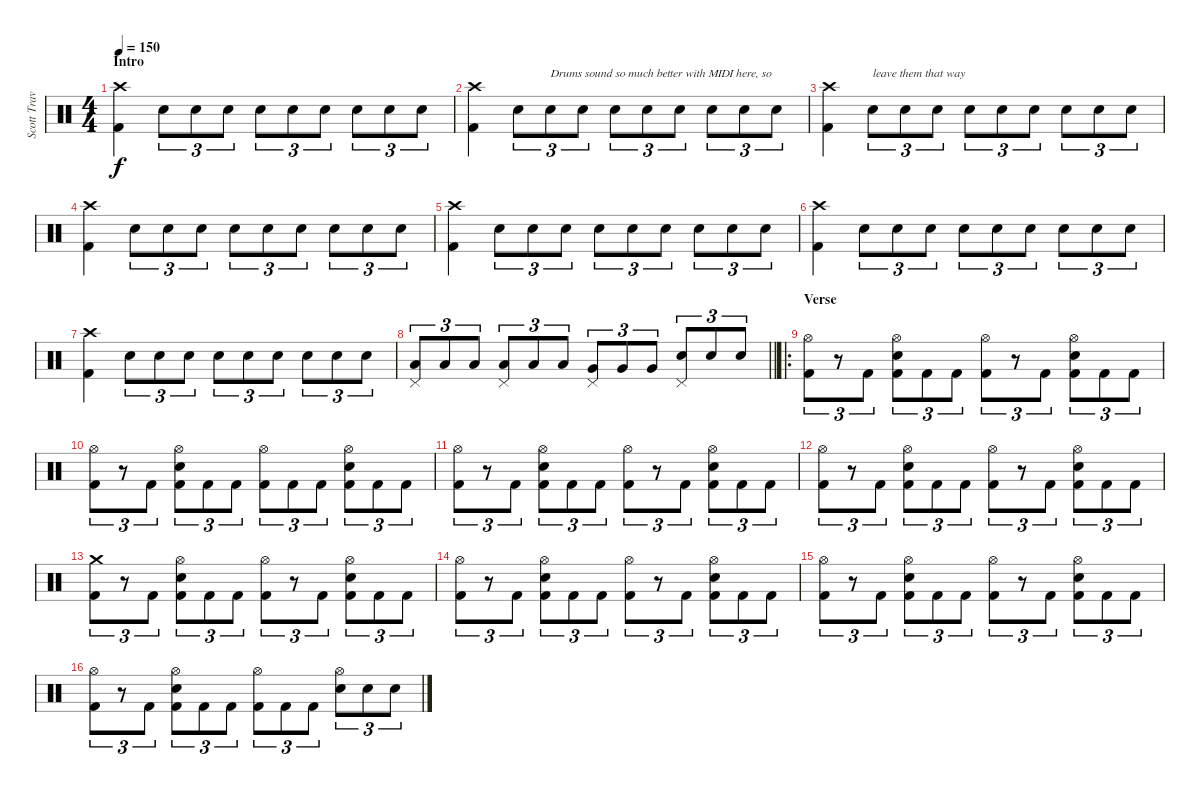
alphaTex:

\track ("Scott Travis" "Scott Trav") {instrument percussion}
\staff {score}
\articulation defaults
\ts (4 4)
\section ("" "Intro")
\tempo 150
\clef neutral
\ks c
("Crash high (hit)" "Kick (hit) 2").4{dy f} "Snare (hit) 2".8{tu (3 2)} "Snare (hit) 2".8{tu (3 2)} "Snare (hit) 2".8{tu (3 2)} "Snare (hit) 2".8{tu (3 2)} "Snare (hit) 2".8{tu (3 2)} "Snare (hit) 2".8{tu (3 2)} "Snare (hit) 2".8{tu (3 2)} "Snare (hit) 2".8{tu (3 2)} "Snare (hit) 2".8{tu (3 2)} |
("Crash high (hit)" "Kick (hit) 2").4 "Snare (hit) 2".8{tu (3 2)} "Snare (hit) 2".8{tu (3 2) txt "Drums sound so much better with MIDI here, so "} "Snare (hit) 2".8{tu (3 2)} "Snare (hit) 2".8{tu (3 2)} "Snare (hit) 2".8{tu (3 2)} "Snare (hit) 2".8{tu (3 2)} "Snare (hit) 2".8{tu (3 2)} "Snare (hit) 2".8{tu (3 2)} "Snare (hit) 2".8{tu (3 2)} |
("Crash high (hit)" "Kick (hit) 2").4 "Snare (hit) 2".8{tu (3 2) txt "leave them that way"} "Snare (hit) 2".8{tu (3 2)} "Snare (hit) 2".8{tu (3 2)} "Snare (hit) 2".8{tu (3 2)} "Snare (hit) 2".8{tu (3 2)} "Snare (hit) 2".8{tu (3 2)} "Snare (hit) 2".8{tu (3 2)} "Snare (hit) 2".8{tu (3 2)} "Snare (hit) 2".8{tu (3 2)} |
("Crash high (hit)" "Kick (hit) 2").4 "Snare (hit) 2".8{tu (3 2)} "Snare (hit) 2".8{tu (3 2)} "Snare (hit) 2".8{tu (3 2)} "Snare (hit) 2".8{tu (3 2)} "Snare (hit) 2".8{tu (3 2)} "Snare (hit) 2".8{tu (3 2)} "Snare (hit) 2".8{tu (3 2)} "Snare (hit) 2".8{tu (3 2)} "Snare (hit) 2".8{tu (3 2)} |
("Crash high (hit)" "Kick (hit) 2").4 "Snare (hit) 2".8{tu (3 2)} "Snare (hit) 2".8{tu (3 2)} "Snare (hit) 2".8{tu (3 2)} "Snare (hit) 2".8{tu (3 2)} "Snare (hit) 2".8{tu (3 2)} "Snare (hit) 2".8{tu (3 2)} "Snare (hit) 2".8{tu (3 2)} "Snare (hit) 2".8{tu (3 2)} "Snare (hit) 2".8{tu (3 2)} |
("Crash high (hit)" "Kick (hit) 2").4 "Snare (hit) 2".8{tu (3 2)} "Snare (hit) 2".8{tu (3 2)} "Snare (hit) 2".8{tu (3 2)} "Snare (hit) 2".8{tu (3 2)} "Snare (hit) 2".8{tu (3 2)} "Snare (hit) 2".8{tu (3 2)} "Snare (hit) 2".8{tu (3 2)} "Snare (hit) 2".8{tu (3 2)} "Snare (hit) 2".8{tu (3 2)} |
("Crash high (hit)" "Kick (hit) 2").4 "Snare (hit) 2".8{tu (3 2)} "Snare (hit) 2".8{tu (3 2)} "Snare (hit) 2".8{tu (3 2)} "Snare (hit) 2".8{tu (3 2)} "Snare (hit) 2".8{tu (3 2)} "Snare (hit) 2".8{tu (3 2)} "Snare (hit) 2".8{tu (3 2)} "Snare (hit) 2".8{tu (3 2)} "Snare (hit) 2".8{tu (3 2)} |
\barLineRight lightlight
("Pedal Hi-Hat (hit)" "Low Floor Tom (hit)").8{tu (3 2)} "Low Floor Tom (hit)".8{tu (3 2)} "Low Floor Tom (hit)".8{tu (3 2)} ("Pedal Hi-Hat (hit)" "Low Tom (hit)").8{tu (3 2)} "Low Tom (hit)".8{tu (3 2)} "Low Tom (hit)".8{tu (3 2)} ("Pedal Hi-Hat (hit)" "Very Low Tom (hit)").8{tu (3 2)} "Very Low Tom (hit)".8{tu (3 2)} "Very Low Tom (hit)".8{tu (3 2)} ("Pedal Hi-Hat (hit)" "Snare (hit) 2").8{tu (3 2)} "Snare (hit) 2".8{tu (3 2)} "Snare (hit) 2".8{tu (3 2)} |
\ro
\section ("" "Verse")
("Hi-Hat (open)" "Kick (hit) 2").8{tu (3 2)} r.8{tu (3 2)} "Kick (hit) 2".8{tu (3 2)} ("Hi-Hat (open)" "Snare (hit) 2" "Kick (hit) 2").8{tu (3 2)} "Kick (hit) 2".8{tu (3 2)} "Kick (hit) 2".8{tu (3 2)} ("Hi-Hat (open)" "Kick (hit) 2").8{tu (3 2)} r.8{tu (3 2)} "Kick (hit) 2".8{tu (3 2)} ("Hi-Hat (open)" "Snare (hit) 2" "Kick (hit) 2").8{tu (3 2)} "Kick (hit) 2".8{tu (3 2)} "Kick (hit) 2".8{tu (3 2)} |
("Hi-Hat (open)" "Kick (hit) 2").8{tu (3 2)} r.8{tu (3 2)} "Kick (hit) 2".8{tu (3 2)} ("Hi-Hat (open)" "Snare (hit) 2" "Kick (hit) 2").8{tu (3 2)} "Kick (hit) 2".8{tu (3 2)} "Kick (hit) 2".8{tu (3 2)} ("Hi-Hat (open)" "Kick (hit) 2").8{tu (3 2)} "Kick (hit) 2".8{tu (3 2)} "Kick (hit) 2".8{tu (3 2)} ("Hi-Hat (open)" "Snare (hit) 2" "Kick (hit) 2").8{tu (3 2)} "Kick (hit) 2".8{tu (3 2)} "Kick (hit) 2".8{tu (3 2)} |
("Hi-Hat (open)" "Kick (hit) 2").8{tu (3 2)} r.8{tu (3 2)} "Kick (hit) 2".8{tu (3 2)} ("Hi-Hat (open)" "Snare (hit) 2" "Kick (hit) 2").8{tu (3 2)} "Kick (hit) 2".8{tu (3 2)} "Kick (hit) 2".8{tu (3 2)} ("Hi-Hat (open)" "Kick (hit) 2").8{tu (3 2)} r.8{tu (3 2)} "Kick (hit) 2".8{tu (3 2)} ("Hi-Hat (open)" "Snare (hit) 2" "Kick (hit) 2").8{tu (3 2)} "Kick (hit) 2".8{tu (3 2)} "Kick (hit) 2".8{tu (3 2)} |
("Hi-Hat (open)" "Kick (hit) 2").8{tu (3 2)} r.8{tu (3 2)} "Kick (hit) 2".8{tu (3 2)} ("Hi-Hat (open)" "Snare (hit) 2" "Kick (hit) 2").8{tu (3 2)} "Kick (hit) 2".8{tu (3 2)} "Kick (hit) 2".8{tu (3 2)} ("Hi-Hat (open)" "Kick (hit) 2").8{tu (3 2)} r.8{tu (3 2)} "Kick (hit) 2".8{tu (3 2)} ("Hi-Hat (open)" "Snare (hit) 2" "Kick (hit) 2").8{tu (3 2)} "Kick (hit) 2".8{tu (3 2)} "Kick (hit) 2".8{tu (3 2)} |
("Crash medium (hit)" "Kick (hit) 2").8{tu (3 2)} r.8{tu (3 2)} "Kick (hit) 2".8{tu (3 2)} ("Hi-Hat (open)" "Snare (hit) 2" "Kick (hit) 2").8{tu (3 2)} "Kick (hit) 2".8{tu (3 2)} "Kick (hit) 2".8{tu (3 2)} ("Hi-Hat (open)" "Kick (hit) 2").8{tu (3 2)} r.8{tu (3 2)} "Kick (hit) 2".8{tu (3 2)} ("Hi-Hat (open)" "Snare (hit) 2" "Kick (hit) 2").8{tu (3 2)} "Kick (hit) 2".8{tu (3 2)} "Kick (hit) 2".8{tu (3 2)} |
("Hi-Hat (open)" "Kick (hit) 2").8{tu (3 2)} r.8{tu (3 2)} "Kick (hit) 2".8{tu (3 2)} ("Hi-Hat (open)" "Snare (hit) 2" "Kick (hit) 2").8{tu (3 2)} "Kick (hit) 2".8{tu (3 2)} "Kick (hit) 2".8{tu (3 2)} ("Hi-Hat (open)" "Kick (hit) 2").8{tu (3 2)} r.8{tu (3 2)} "Kick (hit) 2".8{tu (3 2)} ("Hi-Hat (open)" "Snare (hit) 2" "Kick (hit) 2").8{tu (3 2)} "Kick (hit) 2".8{tu (3 2)} "Kick (hit) 2".8{tu (3 2)} |
("Hi-Hat (open)" "Kick (hit) 2").8{tu (3 2)} r.8{tu (3 2)} "Kick (hit) 2".8{tu (3 2)} ("Hi-Hat (open)" "Snare (hit) 2" "Kick (hit) 2").8{tu (3 2)} "Kick (hit) 2".8{tu (3 2)} "Kick (hit) 2".8{tu (3 2)} ("Hi-Hat (open)" "Kick (hit) 2").8{tu (3 2)} r.8{tu (3 2)} "Kick (hit) 2".8{tu (3 2)} ("Hi-Hat (open)" "Snare (hit) 2" "Kick (hit) 2").8{tu (3 2)} "Kick (hit) 2".8{tu (3 2)} "Kick (hit) 2".8{tu (3 2)} |
("Hi-Hat (open)" "Kick (hit) 2").8{tu (3 2)} r.8{tu (3 2)} "Kick (hit) 2".8{tu (3 2)} ("Hi-Hat (open)" "Snare (hit) 2" "Kick (hit) 2").8{tu (3 2)} "Kick (hit) 2".8{tu (3 2)} "Kick (hit) 2".8{tu (3 2)} ("Hi-Hat (open)" "Kick (hit) 2").8{tu (3 2)} "Kick (hit) 2".8{tu (3 2)} "Kick (hit) 2".8{tu (3 2)} ("Hi-Hat (open)" "Snare (hit) 2").8{tu (3 2)} "Snare (hit) 2".8{tu (3 2)} "Snare (hit) 2".8{tu (3 2)}
